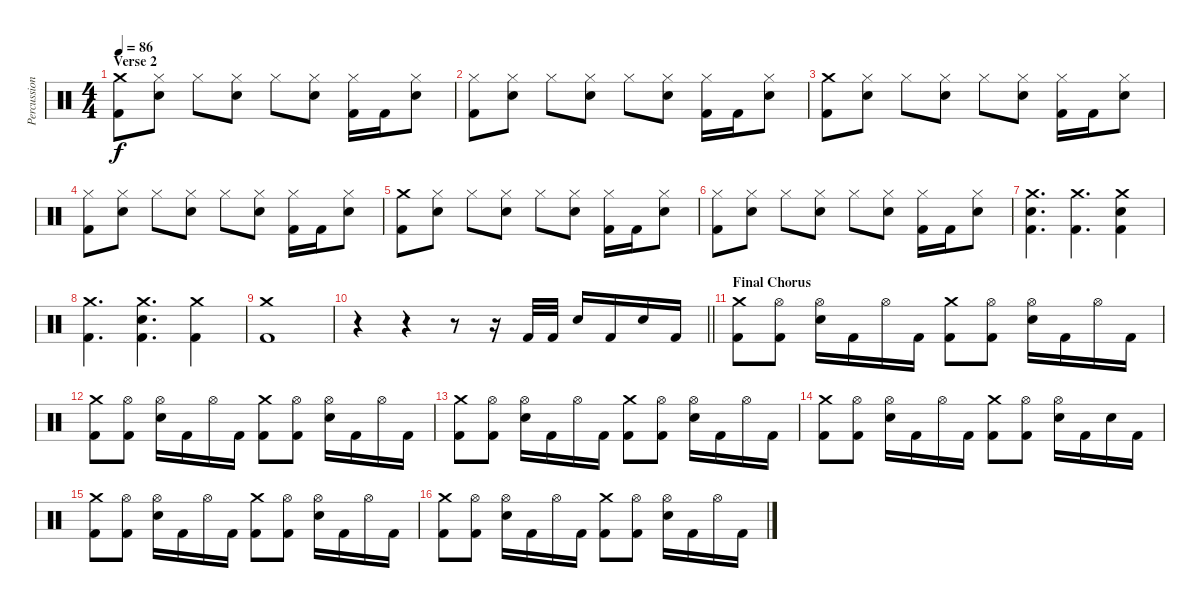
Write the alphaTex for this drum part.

\track ("Percussioni" "Percussion") {instrument percussion}
\staff {score}
\articulation defaults
\ts (4 4)
\section ("" "Verse 2")
\tempo 86
\clef neutral
\ks c
("Crash medium (hit)" "Kick (hit) 2").8{dy f} ("Hi-Hat (closed)" "Snare (hit) 2").8 "Hi-Hat (closed)".8 ("Hi-Hat (closed)" "Snare (hit) 2").8 "Hi-Hat (closed)".8 ("Hi-Hat (closed)" "Snare (hit) 2").8 ("Hi-Hat (closed)" "Kick (hit) 2").16 "Kick (hit) 2".16 ("Hi-Hat (closed)" "Snare (hit) 2").8 |
("Hi-Hat (closed)" "Kick (hit) 2").8 ("Hi-Hat (closed)" "Snare (hit) 2").8 "Hi-Hat (closed)".8 ("Hi-Hat (closed)" "Snare (hit) 2").8 "Hi-Hat (closed)".8 ("Hi-Hat (closed)" "Snare (hit) 2").8 ("Hi-Hat (closed)" "Kick (hit) 2").16 "Kick (hit) 2".16 ("Hi-Hat (closed)" "Snare (hit) 2").8 |
("Crash medium (hit)" "Kick (hit) 2").8 ("Hi-Hat (closed)" "Snare (hit) 2").8 "Hi-Hat (closed)".8 ("Hi-Hat (closed)" "Snare (hit) 2").8 "Hi-Hat (closed)".8 ("Hi-Hat (closed)" "Snare (hit) 2").8 ("Hi-Hat (closed)" "Kick (hit) 2").16 "Kick (hit) 2".16 ("Hi-Hat (closed)" "Snare (hit) 2").8 |
("Hi-Hat (closed)" "Kick (hit) 2").8 ("Hi-Hat (closed)" "Snare (hit) 2").8 "Hi-Hat (closed)".8 ("Hi-Hat (closed)" "Snare (hit) 2").8 "Hi-Hat (closed)".8 ("Hi-Hat (closed)" "Snare (hit) 2").8 ("Hi-Hat (closed)" "Kick (hit) 2").16 "Kick (hit) 2".16 ("Hi-Hat (closed)" "Snare (hit) 2").8 |
("Crash medium (hit)" "Kick (hit) 2").8 ("Hi-Hat (closed)" "Snare (hit) 2").8 "Hi-Hat (closed)".8 ("Hi-Hat (closed)" "Snare (hit) 2").8 "Hi-Hat (closed)".8 ("Hi-Hat (closed)" "Snare (hit) 2").8 ("Hi-Hat (closed)" "Kick (hit) 2").16 "Kick (hit) 2".16 ("Hi-Hat (closed)" "Snare (hit) 2").8 |
("Hi-Hat (closed)" "Kick (hit) 2").8 ("Hi-Hat (closed)" "Snare (hit) 2").8 "Hi-Hat (closed)".8 ("Hi-Hat (closed)" "Snare (hit) 2").8 "Hi-Hat (closed)".8 ("Hi-Hat (closed)" "Snare (hit) 2").8 ("Hi-Hat (closed)" "Kick (hit) 2").16 "Kick (hit) 2".16 ("Hi-Hat (closed)" "Snare (hit) 2").8 |
("Crash medium (hit)" "Snare (hit) 2" "Kick (hit) 2").4{d} ("Crash medium (hit)" "Kick (hit) 2").4{d} ("Crash medium (hit)" "Snare (hit) 2" "Kick (hit) 2").4 |
("Crash medium (hit)" "Kick (hit) 2").4{d} ("Crash medium (hit)" "Snare (hit) 2" "Kick (hit) 2").4{d} ("Crash medium (hit)" "Kick (hit) 2").4 |
("Crash medium (hit)" "Kick (hit) 2").1 |
\barLineRight lightlight
r.4 r.4 r.8 r.16 "Kick (hit) 2".32 "Kick (hit) 2".32 "Snare (hit) 2".16 "Kick (hit) 2".16 "Snare (hit) 2".16 "Kick (hit) 2".16 |
\section ("" "Final Chorus")
("Crash medium (hit)" "Kick (hit) 2").8 ("Hi-Hat (open)" "Kick (hit) 2").8 ("Hi-Hat (open)" "Snare (hit) 2").16 "Kick (hit) 2".16 "Hi-Hat (open)".16 "Kick (hit) 2".16 ("Crash medium (hit)" "Kick (hit) 2").8 ("Hi-Hat (open)" "Kick (hit) 2").8 ("Hi-Hat (open)" "Snare (hit) 2").16 "Kick (hit) 2".16 "Hi-Hat (open)".16 "Kick (hit) 2".16 |
("Crash medium (hit)" "Kick (hit) 2").8 ("Hi-Hat (open)" "Kick (hit) 2").8 ("Hi-Hat (open)" "Snare (hit) 2").16 "Kick (hit) 2".16 "Hi-Hat (open)".16 "Kick (hit) 2".16 ("Crash medium (hit)" "Kick (hit) 2").8 ("Hi-Hat (open)" "Kick (hit) 2").8 ("Hi-Hat (open)" "Snare (hit) 2").16 "Kick (hit) 2".16 "Hi-Hat (open)".16 "Kick (hit) 2".16 |
("Crash medium (hit)" "Kick (hit) 2").8 ("Hi-Hat (open)" "Kick (hit) 2").8 ("Hi-Hat (open)" "Snare (hit) 2").16 "Kick (hit) 2".16 "Hi-Hat (open)".16 "Kick (hit) 2".16 ("Crash medium (hit)" "Kick (hit) 2").8 ("Hi-Hat (open)" "Kick (hit) 2").8 ("Hi-Hat (open)" "Snare (hit) 2").16 "Kick (hit) 2".16 "Hi-Hat (open)".16 "Kick (hit) 2".16 |
("Crash medium (hit)" "Kick (hit) 2").8 ("Hi-Hat (open)" "Kick (hit) 2").8 ("Hi-Hat (open)" "Snare (hit) 2").16 "Kick (hit) 2".16 "Hi-Hat (open)".16 "Kick (hit) 2".16 ("Crash medium (hit)" "Kick (hit) 2").8 ("Hi-Hat (open)" "Kick (hit) 2").8 ("Hi-Hat (open)" "Snare (hit) 2").16 "Kick (hit) 2".16 "Snare (hit) 2".16 "Kick (hit) 2".16 |
("Crash medium (hit)" "Kick (hit) 2").8 ("Hi-Hat (open)" "Kick (hit) 2").8 ("Hi-Hat (open)" "Snare (hit) 2").16 "Kick (hit) 2".16 "Hi-Hat (open)".16 "Kick (hit) 2".16 ("Crash medium (hit)" "Kick (hit) 2").8 ("Hi-Hat (open)" "Kick (hit) 2").8 ("Hi-Hat (open)" "Snare (hit) 2").16 "Kick (hit) 2".16 "Hi-Hat (open)".16 "Kick (hit) 2".16 |
("Crash medium (hit)" "Kick (hit) 2").8 ("Hi-Hat (open)" "Kick (hit) 2").8 ("Hi-Hat (open)" "Snare (hit) 2").16 "Kick (hit) 2".16 "Hi-Hat (open)".16 "Kick (hit) 2".16 ("Crash medium (hit)" "Kick (hit) 2").8 ("Hi-Hat (open)" "Kick (hit) 2").8 ("Hi-Hat (open)" "Snare (hit) 2").16 "Kick (hit) 2".16 "Hi-Hat (open)".16 "Kick (hit) 2".16
